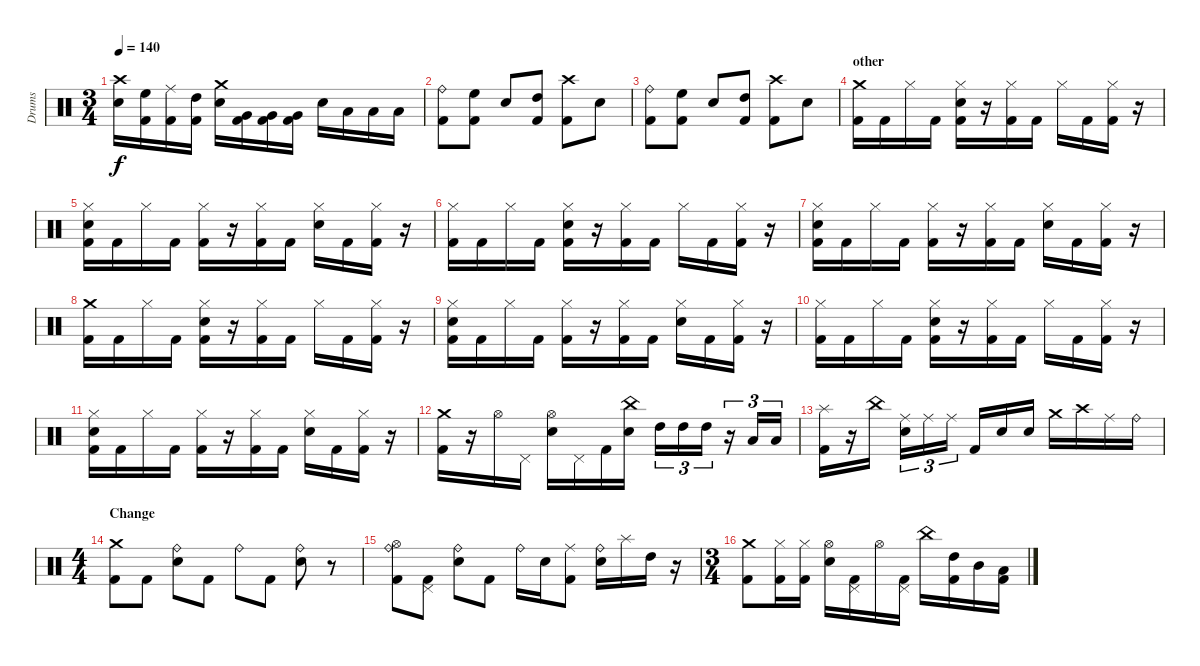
\track ("Drums" "Drums") {instrument percussion}
\staff {score}
\articulation defaults
\ts (3 4)
\tempo 140
\clef neutral
\ks c
("Crash high (hit)" "Electric Snare (hit)").16{dy f} ("High Floor Tom (hit)" "Kick (hit) 2").16 ("Ride (middle)" "Kick (hit) 2").16 ("High Tom (hit)" "Kick (hit) 2").16 ("Crash medium (hit)" "Electric Snare (hit)").16 ("Very Low Tom (hit)" "Kick (hit) 2").16 ("Very Low Tom (hit)" "Kick (hit) 2").16 ("Very Low Tom (hit)" "Kick (hit) 2").16 "Electric Snare (hit)".16 "Low Floor Tom (hit)".16 "Low Floor Tom (hit)".16 "Low Floor Tom (hit)".16 |
("Ride (bell)" "Kick (hit) 2").8 ("High Floor Tom (hit)" "Kick (hit) 2").8 "Electric Snare (hit)".8 ("High Tom (hit)" "Kick (hit) 2").8 ("Crash high (hit)" "Kick (hit) 2").8 "Electric Snare (hit)".8 |
("Ride (bell)" "Kick (hit) 2").8 ("High Floor Tom (hit)" "Kick (hit) 2").8 "Electric Snare (hit)".8 ("High Tom (hit)" "Kick (hit) 2").8 ("Crash high (hit)" "Kick (hit) 2").8 "Electric Snare (hit)".8 |
\section ("" "other")
("Crash medium (hit)" "Kick (hit) 2").16 "Kick (hit) 2".16 "Hi-Hat (closed)".16 "Kick (hit) 2".16 ("Hi-Hat (closed)" "Electric Snare (hit)" "Kick (hit) 2").16 r.16 ("Hi-Hat (closed)" "Kick (hit) 2").16 "Kick (hit) 2".16 "Hi-Hat (closed)".16 "Kick (hit) 2".16 ("Hi-Hat (closed)" "Kick (hit) 2").16 r.16 |
("Hi-Hat (closed)" "Electric Snare (hit)" "Kick (hit) 2").16 "Kick (hit) 2".16 "Hi-Hat (closed)".16 "Kick (hit) 2".16 ("Hi-Hat (closed)" "Kick (hit) 2").16 r.16 ("Hi-Hat (closed)" "Kick (hit) 2").16 "Kick (hit) 2".16 ("Hi-Hat (closed)" "Electric Snare (hit)").16 "Kick (hit) 2".16 ("Hi-Hat (closed)" "Kick (hit) 2").16 r.16 |
("Hi-Hat (closed)" "Kick (hit) 2").16 "Kick (hit) 2".16 "Hi-Hat (closed)".16 "Kick (hit) 2".16 ("Hi-Hat (closed)" "Electric Snare (hit)" "Kick (hit) 2").16 r.16 ("Hi-Hat (closed)" "Kick (hit) 2").16 "Kick (hit) 2".16 "Hi-Hat (closed)".16 "Kick (hit) 2".16 ("Hi-Hat (closed)" "Kick (hit) 2").16 r.16 |
("Hi-Hat (closed)" "Electric Snare (hit)" "Kick (hit) 2").16 "Kick (hit) 2".16 "Hi-Hat (closed)".16 "Kick (hit) 2".16 ("Hi-Hat (closed)" "Kick (hit) 2").16 r.16 ("Hi-Hat (closed)" "Kick (hit) 2").16 "Kick (hit) 2".16 ("Hi-Hat (closed)" "Electric Snare (hit)").16 "Kick (hit) 2".16 ("Hi-Hat (closed)" "Kick (hit) 2").16 r.16 |
("Crash medium (hit)" "Kick (hit) 2").16 "Kick (hit) 2".16 "Hi-Hat (closed)".16 "Kick (hit) 2".16 ("Hi-Hat (closed)" "Electric Snare (hit)" "Kick (hit) 2").16 r.16 ("Hi-Hat (closed)" "Kick (hit) 2").16 "Kick (hit) 2".16 "Hi-Hat (closed)".16 "Kick (hit) 2".16 ("Hi-Hat (closed)" "Kick (hit) 2").16 r.16 |
("Hi-Hat (closed)" "Electric Snare (hit)" "Kick (hit) 2").16 "Kick (hit) 2".16 "Hi-Hat (closed)".16 "Kick (hit) 2".16 ("Hi-Hat (closed)" "Kick (hit) 2").16 r.16 ("Hi-Hat (closed)" "Kick (hit) 2").16 "Kick (hit) 2".16 ("Hi-Hat (closed)" "Electric Snare (hit)").16 "Kick (hit) 2".16 ("Hi-Hat (closed)" "Kick (hit) 2").16 r.16 |
("Hi-Hat (closed)" "Kick (hit) 2").16 "Kick (hit) 2".16 "Hi-Hat (closed)".16 "Kick (hit) 2".16 ("Hi-Hat (closed)" "Electric Snare (hit)" "Kick (hit) 2").16 r.16 ("Hi-Hat (closed)" "Kick (hit) 2").16 "Kick (hit) 2".16 "Hi-Hat (closed)".16 "Kick (hit) 2".16 ("Hi-Hat (closed)" "Kick (hit) 2").16 r.16 |
("Hi-Hat (closed)" "Electric Snare (hit)" "Kick (hit) 2").16 "Kick (hit) 2".16 "Hi-Hat (closed)".16 "Kick (hit) 2".16 ("Hi-Hat (closed)" "Kick (hit) 2").16 r.16 ("Hi-Hat (closed)" "Kick (hit) 2").16 "Kick (hit) 2".16 ("Hi-Hat (closed)" "Electric Snare (hit)").16 "Kick (hit) 2".16 ("Hi-Hat (closed)" "Kick (hit) 2").16 r.16 |
("Crash medium (hit)" "Kick (hit) 2").16 r.16 "Hi-Hat (open)".16 "Pedal Hi-Hat (hit)".16 ("Hi-Hat (open)" "Electric Snare (hit)").16 "Pedal Hi-Hat (hit)".16 "Kick (hit) 2".16 ("China (hit)" "Electric Snare (hit)").16 "High Tom (hit)".16{tu (3 2)} "High Tom (hit)".16{tu (3 2)} "High Tom (hit)".16{tu (3 2)} r.16{tu (3 2)} "Low Tom (hit)".16{tu (3 2)} "Low Tom (hit)".16{tu (3 2)} |
("Splash (hit)" "Kick (hit) 2").16 r.16 "China (hit)".16 ("Ride (middle)" "Electric Snare (hit)").16{tu (3 2)} "Ride (middle)".16{tu (3 2)} "Ride (middle)".16{tu (3 2)} "Kick (hit) 2".16 "Electric Snare (hit)".16 "Electric Snare (hit)".16 "Crash medium (hit)".16 "Crash high (hit)".16 "Ride (middle)".16 "Ride (bell)".16 |
\ts (4 4)
\section ("" "Change")
("Crash medium (hit)" "Kick (hit) 2").8 "Kick (hit) 2".8 ("Ride (bell)" "Electric Snare (hit)").8 "Kick (hit) 2".8 "Ride (bell)".8 "Kick (hit) 2".8 ("Ride (bell)" "Electric Snare (hit)").8 r.8 |
("Ride (bell)" "Hi-Hat (open)" "Kick (hit) 2").8 ("Pedal Hi-Hat (hit)" "Kick (hit) 2").8 ("Ride (bell)" "Electric Snare (hit)").8 "Kick (hit) 2".8 "Ride (bell)".16 "Electric Snare (hit)".16 ("Ride (middle)" "Kick (hit) 2").8 ("Ride (bell)" "Electric Snare (hit)").16 "Splash (hit)".16 "High Tom (hit)".16 r.16 |
\ts (3 4)
("Crash medium (hit)" "Kick (hit) 2").8 ("Hi-Hat (closed)" "Kick (hit) 2").16 ("Hi-Hat (closed)" "Kick (hit) 2").16 ("Hi-Hat (open)" "Electric Snare (hit)").16 ("Pedal Hi-Hat (hit)" "Kick (hit) 2").16 "Hi-Hat (open)".16 ("Pedal Hi-Hat (hit)" "Kick (hit) 2").16 "China (hit)".16 ("High Tom (hit)" "Kick (hit) 2").16 "Mid Tom (hit)".16 ("Low Tom (hit)" "Kick (hit) 2").16
